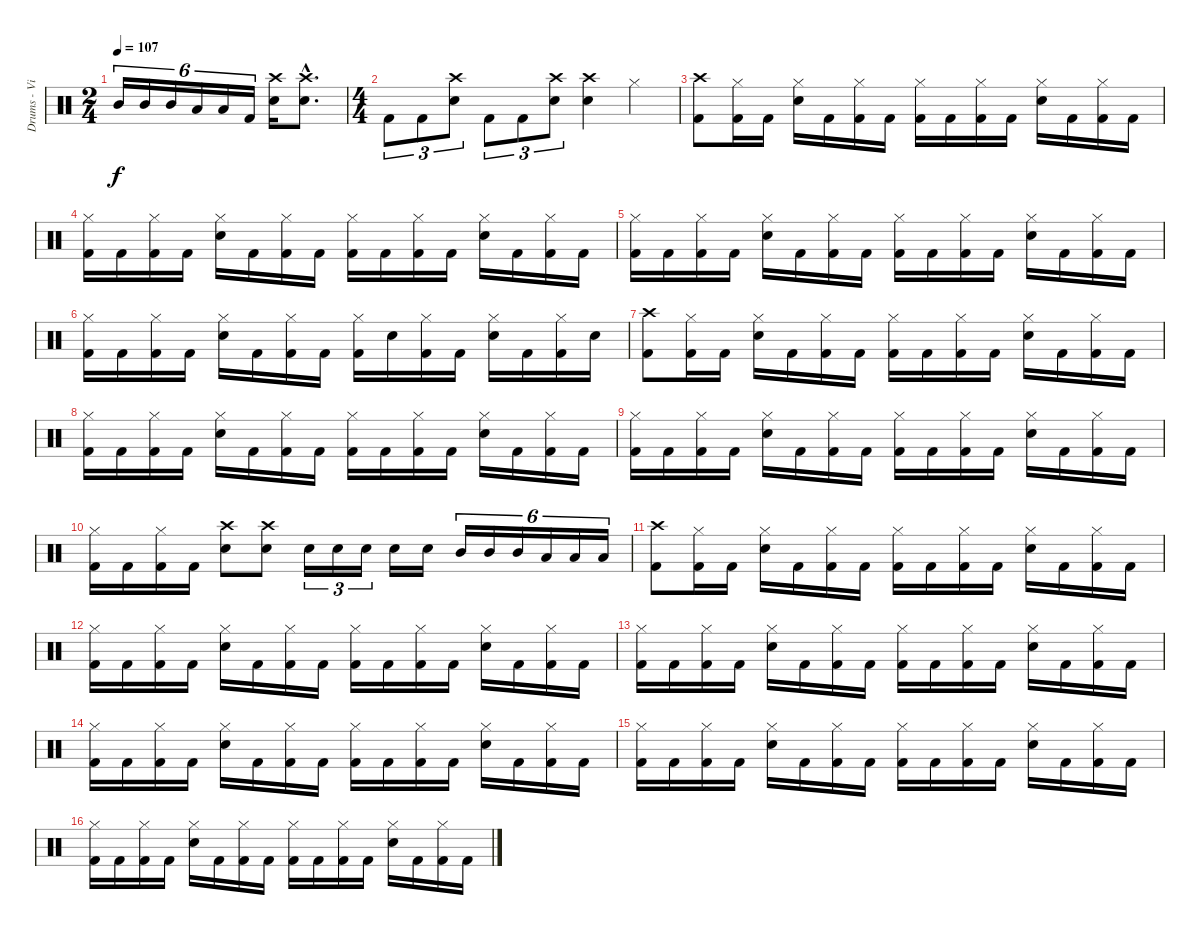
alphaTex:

\track ("Drums - Vinnie Paul" "Drums - Vi") {instrument percussion}
\staff {score}
\articulation defaults
\ts (2 4)
\tempo 107
\clef neutral
\ks c "Mid Tom (hit)".16{tu (6 4) dy f} "Mid Tom (hit)".16{tu (6 4)} "Mid Tom (hit)".16{tu (6 4)} "Low Tom (hit)".16{tu (6 4)} "Low Tom (hit)".16{tu (6 4)} "Kick (hit) 2".16{tu (6 4)}
("Crash high (hit)" "Electric Snare (hit)").16 ("Crash high (hit)"{hac} "Electric Snare (hit)"{hac}).8{d} |
\ts (4 4)
"Kick (hit) 2".8{tu (3 2)} "Kick (hit) 2".8{tu (3 2)} ("Crash high (hit)" "Electric Snare (hit)").8{tu (3 2)} "Kick (hit) 2".8{tu (3 2)} "Kick (hit) 2".8{tu (3 2)} ("Crash high (hit)" "Electric Snare (hit)").8{tu (3 2)} ("Crash high (hit)" "Electric Snare (hit)").4 "Hi-Hat (closed)".4 |
("Crash high (hit)" "Kick (hit) 2").8 ("Hi-Hat (closed)" "Kick (hit) 2").16 "Kick (hit) 2".16 ("Hi-Hat (closed)" "Electric Snare (hit)").16 "Kick (hit) 2".16 ("Hi-Hat (closed)" "Kick (hit) 2").16 "Kick (hit) 2".16 ("Hi-Hat (closed)" "Kick (hit) 2").16 "Kick (hit) 2".16 ("Hi-Hat (closed)" "Kick (hit) 2").16 "Kick (hit) 2".16 ("Hi-Hat (closed)" "Electric Snare (hit)").16 "Kick (hit) 2".16 ("Hi-Hat (closed)" "Kick (hit) 2").16 "Kick (hit) 2".16 |
("Hi-Hat (closed)" "Kick (hit) 2").16 "Kick (hit) 2".16 ("Hi-Hat (closed)" "Kick (hit) 2").16 "Kick (hit) 2".16 ("Hi-Hat (closed)" "Electric Snare (hit)").16 "Kick (hit) 2".16 ("Hi-Hat (closed)" "Kick (hit) 2").16 "Kick (hit) 2".16 ("Hi-Hat (closed)" "Kick (hit) 2").16 "Kick (hit) 2".16 ("Hi-Hat (closed)" "Kick (hit) 2").16 "Kick (hit) 2".16 ("Hi-Hat (closed)" "Electric Snare (hit)").16 "Kick (hit) 2".16 ("Hi-Hat (closed)" "Kick (hit) 2").16 "Kick (hit) 2".16 |
("Hi-Hat (closed)" "Kick (hit) 2").16 "Kick (hit) 2".16 ("Hi-Hat (closed)" "Kick (hit) 2").16 "Kick (hit) 2".16 ("Hi-Hat (closed)" "Electric Snare (hit)").16 "Kick (hit) 2".16 ("Hi-Hat (closed)" "Kick (hit) 2").16 "Kick (hit) 2".16 ("Hi-Hat (closed)" "Kick (hit) 2").16 "Kick (hit) 2".16 ("Hi-Hat (closed)" "Kick (hit) 2").16 "Kick (hit) 2".16 ("Hi-Hat (closed)" "Electric Snare (hit)").16 "Kick (hit) 2".16 ("Hi-Hat (closed)" "Kick (hit) 2").16 "Kick (hit) 2".16 |
("Hi-Hat (closed)" "Kick (hit) 2").16 "Kick (hit) 2".16 ("Hi-Hat (closed)" "Kick (hit) 2").16 "Kick (hit) 2".16 ("Hi-Hat (closed)" "Electric Snare (hit)").16 "Kick (hit) 2".16 ("Hi-Hat (closed)" "Kick (hit) 2").16 "Kick (hit) 2".16 ("Hi-Hat (closed)" "Kick (hit) 2").16 "Electric Snare (hit)".16 ("Hi-Hat (closed)" "Kick (hit) 2").16 "Kick (hit) 2".16 ("Hi-Hat (closed)" "Electric Snare (hit)").16 "Kick (hit) 2".16 ("Hi-Hat (closed)" "Kick (hit) 2").16 "Electric Snare (hit)".16 |
("Crash high (hit)" "Kick (hit) 2").8 ("Hi-Hat (closed)" "Kick (hit) 2").16 "Kick (hit) 2".16 ("Hi-Hat (closed)" "Electric Snare (hit)").16 "Kick (hit) 2".16 ("Hi-Hat (closed)" "Kick (hit) 2").16 "Kick (hit) 2".16 ("Hi-Hat (closed)" "Kick (hit) 2").16 "Kick (hit) 2".16 ("Hi-Hat (closed)" "Kick (hit) 2").16 "Kick (hit) 2".16 ("Hi-Hat (closed)" "Electric Snare (hit)").16 "Kick (hit) 2".16 ("Hi-Hat (closed)" "Kick (hit) 2").16 "Kick (hit) 2".16 |
("Hi-Hat (closed)" "Kick (hit) 2").16 "Kick (hit) 2".16 ("Hi-Hat (closed)" "Kick (hit) 2").16 "Kick (hit) 2".16 ("Hi-Hat (closed)" "Electric Snare (hit)").16 "Kick (hit) 2".16 ("Hi-Hat (closed)" "Kick (hit) 2").16 "Kick (hit) 2".16 ("Hi-Hat (closed)" "Kick (hit) 2").16 "Kick (hit) 2".16 ("Hi-Hat (closed)" "Kick (hit) 2").16 "Kick (hit) 2".16 ("Hi-Hat (closed)" "Electric Snare (hit)").16 "Kick (hit) 2".16 ("Hi-Hat (closed)" "Kick (hit) 2").16 "Kick (hit) 2".16 |
("Hi-Hat (closed)" "Kick (hit) 2").16 "Kick (hit) 2".16 ("Hi-Hat (closed)" "Kick (hit) 2").16 "Kick (hit) 2".16 ("Hi-Hat (closed)" "Electric Snare (hit)").16 "Kick (hit) 2".16 ("Hi-Hat (closed)" "Kick (hit) 2").16 "Kick (hit) 2".16 ("Hi-Hat (closed)" "Kick (hit) 2").16 "Kick (hit) 2".16 ("Hi-Hat (closed)" "Kick (hit) 2").16 "Kick (hit) 2".16 ("Hi-Hat (closed)" "Electric Snare (hit)").16 "Kick (hit) 2".16 ("Hi-Hat (closed)" "Kick (hit) 2").16 "Kick (hit) 2".16 |
("Hi-Hat (closed)" "Kick (hit) 2").16 "Kick (hit) 2".16 ("Hi-Hat (closed)" "Kick (hit) 2").16 "Kick (hit) 2".16 ("Crash high (hit)" "Electric Snare (hit)").8 ("Crash high (hit)" "Electric Snare (hit)").8 "Electric Snare (hit)".16{tu (3 2)} "Electric Snare (hit)".16{tu (3 2)} "Electric Snare (hit)".16{tu (3 2)} "Electric Snare (hit)".16 "Electric Snare (hit)".16 "Mid Tom (hit)".16{tu (6 4)} "Mid Tom (hit)".16{tu (6 4)} "Mid Tom (hit)".16{tu (6 4)} "Low Tom (hit)".16{tu (6 4)} "Low Tom (hit)".16{tu (6 4)} "Low Tom (hit)".16{tu (6 4)} |
("Crash high (hit)" "Kick (hit) 2").8 ("Hi-Hat (closed)" "Kick (hit) 2").16 "Kick (hit) 2".16 ("Hi-Hat (closed)" "Electric Snare (hit)").16 "Kick (hit) 2".16 ("Hi-Hat (closed)" "Kick (hit) 2").16 "Kick (hit) 2".16 ("Hi-Hat (closed)" "Kick (hit) 2").16 "Kick (hit) 2".16 ("Hi-Hat (closed)" "Kick (hit) 2").16 "Kick (hit) 2".16 ("Hi-Hat (closed)" "Electric Snare (hit)").16 "Kick (hit) 2".16 ("Hi-Hat (closed)" "Kick (hit) 2").16 "Kick (hit) 2".16 |
("Hi-Hat (closed)" "Kick (hit) 2").16 "Kick (hit) 2".16 ("Hi-Hat (closed)" "Kick (hit) 2").16 "Kick (hit) 2".16 ("Hi-Hat (closed)" "Electric Snare (hit)").16 "Kick (hit) 2".16 ("Hi-Hat (closed)" "Kick (hit) 2").16 "Kick (hit) 2".16 ("Hi-Hat (closed)" "Kick (hit) 2").16 "Kick (hit) 2".16 ("Hi-Hat (closed)" "Kick (hit) 2").16 "Kick (hit) 2".16 ("Hi-Hat (closed)" "Electric Snare (hit)").16 "Kick (hit) 2".16 ("Hi-Hat (closed)" "Kick (hit) 2").16 "Kick (hit) 2".16 |
("Hi-Hat (closed)" "Kick (hit) 2").16 "Kick (hit) 2".16 ("Hi-Hat (closed)" "Kick (hit) 2").16 "Kick (hit) 2".16 ("Hi-Hat (closed)" "Electric Snare (hit)").16 "Kick (hit) 2".16 ("Hi-Hat (closed)" "Kick (hit) 2").16 "Kick (hit) 2".16 ("Hi-Hat (closed)" "Kick (hit) 2").16 "Kick (hit) 2".16 ("Hi-Hat (closed)" "Kick (hit) 2").16 "Kick (hit) 2".16 ("Hi-Hat (closed)" "Electric Snare (hit)").16 "Kick (hit) 2".16 ("Hi-Hat (closed)" "Kick (hit) 2").16 "Kick (hit) 2".16 |
("Hi-Hat (closed)" "Kick (hit) 2").16 "Kick (hit) 2".16 ("Hi-Hat (closed)" "Kick (hit) 2").16 "Kick (hit) 2".16 ("Hi-Hat (closed)" "Electric Snare (hit)").16 "Kick (hit) 2".16 ("Hi-Hat (closed)" "Kick (hit) 2").16 "Kick (hit) 2".16 ("Hi-Hat (closed)" "Kick (hit) 2").16 "Kick (hit) 2".16 ("Hi-Hat (closed)" "Kick (hit) 2").16 "Kick (hit) 2".16 ("Hi-Hat (closed)" "Electric Snare (hit)").16 "Kick (hit) 2".16 ("Hi-Hat (closed)" "Kick (hit) 2").16 "Kick (hit) 2".16 |
("Hi-Hat (closed)" "Kick (hit) 2").16 "Kick (hit) 2".16 ("Hi-Hat (closed)" "Kick (hit) 2").16 "Kick (hit) 2".16 ("Hi-Hat (closed)" "Electric Snare (hit)").16 "Kick (hit) 2".16 ("Hi-Hat (closed)" "Kick (hit) 2").16 "Kick (hit) 2".16 ("Hi-Hat (closed)" "Kick (hit) 2").16 "Kick (hit) 2".16 ("Hi-Hat (closed)" "Kick (hit) 2").16 "Kick (hit) 2".16 ("Hi-Hat (closed)" "Electric Snare (hit)").16 "Kick (hit) 2".16 ("Hi-Hat (closed)" "Kick (hit) 2").16 "Kick (hit) 2".16 |
("Hi-Hat (closed)" "Kick (hit) 2").16 "Kick (hit) 2".16 ("Hi-Hat (closed)" "Kick (hit) 2").16 "Kick (hit) 2".16 ("Hi-Hat (closed)" "Electric Snare (hit)").16 "Kick (hit) 2".16 ("Hi-Hat (closed)" "Kick (hit) 2").16 "Kick (hit) 2".16 ("Hi-Hat (closed)" "Kick (hit) 2").16 "Kick (hit) 2".16 ("Hi-Hat (closed)" "Kick (hit) 2").16 "Kick (hit) 2".16 ("Hi-Hat (closed)" "Electric Snare (hit)").16 "Kick (hit) 2".16 ("Hi-Hat (closed)" "Kick (hit) 2").16 "Kick (hit) 2".16
